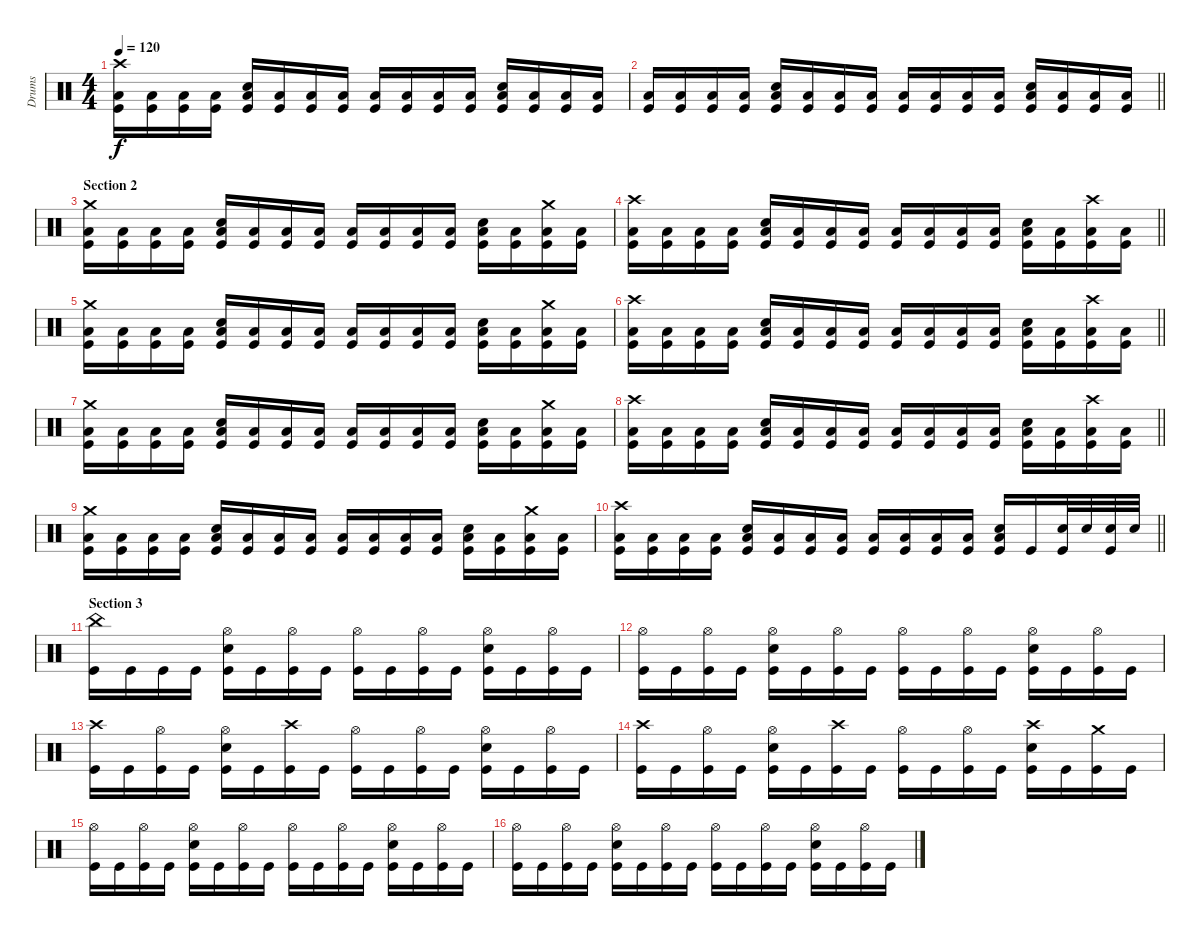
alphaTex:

\track ("Drums" "Drums") {instrument percussion}
\staff {score}
\articulation defaults
\ts (4 4)
\tempo 120
\clef neutral
\ks c
("Crash high (hit)" "Low Floor Tom (hit)" "Kick (hit)").16{dy f} ("Low Floor Tom (hit)" "Kick (hit)").16 ("Low Floor Tom (hit)" "Kick (hit)").16 ("Low Floor Tom (hit)" "Kick (hit)").16 ("Snare (hit) 2" "Low Floor Tom (hit)" "Kick (hit)").16 ("Low Floor Tom (hit)" "Kick (hit)").16 ("Low Floor Tom (hit)" "Kick (hit)").16 ("Low Floor Tom (hit)" "Kick (hit)").16 ("Low Floor Tom (hit)" "Kick (hit)").16 ("Low Floor Tom (hit)" "Kick (hit)").16 ("Low Floor Tom (hit)" "Kick (hit)").16 ("Low Floor Tom (hit)" "Kick (hit)").16 ("Snare (hit) 2" "Low Floor Tom (hit)" "Kick (hit)").16 ("Low Floor Tom (hit)" "Kick (hit)").16 ("Low Floor Tom (hit)" "Kick (hit)").16 ("Low Floor Tom (hit)" "Kick (hit)").16 |
\barLineRight lightlight
("Low Floor Tom (hit)" "Kick (hit)").16 ("Low Floor Tom (hit)" "Kick (hit)").16 ("Low Floor Tom (hit)" "Kick (hit)").16 ("Low Floor Tom (hit)" "Kick (hit)").16 ("Snare (hit) 2" "Low Floor Tom (hit)" "Kick (hit)").16 ("Low Floor Tom (hit)" "Kick (hit)").16 ("Low Floor Tom (hit)" "Kick (hit)").16 ("Low Floor Tom (hit)" "Kick (hit)").16 ("Low Floor Tom (hit)" "Kick (hit)").16 ("Low Floor Tom (hit)" "Kick (hit)").16 ("Low Floor Tom (hit)" "Kick (hit)").16 ("Low Floor Tom (hit)" "Kick (hit)").16 ("Snare (hit) 2" "Low Floor Tom (hit)" "Kick (hit)").16 ("Low Floor Tom (hit)" "Kick (hit)").16 ("Low Floor Tom (hit)" "Kick (hit)").16 ("Low Floor Tom (hit)" "Kick (hit)").16 |
\section ("" "Section 2")
("Crash medium (hit)" "Low Floor Tom (hit)" "Kick (hit)").16 ("Low Floor Tom (hit)" "Kick (hit)").16 ("Low Floor Tom (hit)" "Kick (hit)").16 ("Low Floor Tom (hit)" "Kick (hit)").16 ("Snare (hit) 2" "Low Floor Tom (hit)" "Kick (hit)").16 ("Low Floor Tom (hit)" "Kick (hit)").16 ("Low Floor Tom (hit)" "Kick (hit)").16 ("Low Floor Tom (hit)" "Kick (hit)").16 ("Low Floor Tom (hit)" "Kick (hit)").16 ("Low Floor Tom (hit)" "Kick (hit)").16 ("Low Floor Tom (hit)" "Kick (hit)").16 ("Low Floor Tom (hit)" "Kick (hit)").16 ("Snare (hit) 2" "Low Floor Tom (hit)" "Kick (hit)").16 ("Low Floor Tom (hit)" "Kick (hit)").16 ("Crash medium (hit)" "Low Floor Tom (hit)" "Kick (hit)").16 ("Low Floor Tom (hit)" "Kick (hit)").16 |
\barLineRight lightlight
("Crash high (hit)" "Low Floor Tom (hit)" "Kick (hit)").16 ("Low Floor Tom (hit)" "Kick (hit)").16 ("Low Floor Tom (hit)" "Kick (hit)").16 ("Low Floor Tom (hit)" "Kick (hit)").16 ("Snare (hit) 2" "Low Floor Tom (hit)" "Kick (hit)").16 ("Low Floor Tom (hit)" "Kick (hit)").16 ("Low Floor Tom (hit)" "Kick (hit)").16 ("Low Floor Tom (hit)" "Kick (hit)").16 ("Low Floor Tom (hit)" "Kick (hit)").16 ("Low Floor Tom (hit)" "Kick (hit)").16 ("Low Floor Tom (hit)" "Kick (hit)").16 ("Low Floor Tom (hit)" "Kick (hit)").16 ("Snare (hit) 2" "Low Floor Tom (hit)" "Kick (hit)").16 ("Low Floor Tom (hit)" "Kick (hit)").16 ("Crash high (hit)" "Low Floor Tom (hit)" "Kick (hit)").16 ("Low Floor Tom (hit)" "Kick (hit)").16 |
("Crash medium (hit)" "Low Floor Tom (hit)" "Kick (hit)").16 ("Low Floor Tom (hit)" "Kick (hit)").16 ("Low Floor Tom (hit)" "Kick (hit)").16 ("Low Floor Tom (hit)" "Kick (hit)").16 ("Snare (hit) 2" "Low Floor Tom (hit)" "Kick (hit)").16 ("Low Floor Tom (hit)" "Kick (hit)").16 ("Low Floor Tom (hit)" "Kick (hit)").16 ("Low Floor Tom (hit)" "Kick (hit)").16 ("Low Floor Tom (hit)" "Kick (hit)").16 ("Low Floor Tom (hit)" "Kick (hit)").16 ("Low Floor Tom (hit)" "Kick (hit)").16 ("Low Floor Tom (hit)" "Kick (hit)").16 ("Snare (hit) 2" "Low Floor Tom (hit)" "Kick (hit)").16 ("Low Floor Tom (hit)" "Kick (hit)").16 ("Crash medium (hit)" "Low Floor Tom (hit)" "Kick (hit)").16 ("Low Floor Tom (hit)" "Kick (hit)").16 |
\barLineRight lightlight
("Crash high (hit)" "Low Floor Tom (hit)" "Kick (hit)").16 ("Low Floor Tom (hit)" "Kick (hit)").16 ("Low Floor Tom (hit)" "Kick (hit)").16 ("Low Floor Tom (hit)" "Kick (hit)").16 ("Snare (hit) 2" "Low Floor Tom (hit)" "Kick (hit)").16 ("Low Floor Tom (hit)" "Kick (hit)").16 ("Low Floor Tom (hit)" "Kick (hit)").16 ("Low Floor Tom (hit)" "Kick (hit)").16 ("Low Floor Tom (hit)" "Kick (hit)").16 ("Low Floor Tom (hit)" "Kick (hit)").16 ("Low Floor Tom (hit)" "Kick (hit)").16 ("Low Floor Tom (hit)" "Kick (hit)").16 ("Snare (hit) 2" "Low Floor Tom (hit)" "Kick (hit)").16 ("Low Floor Tom (hit)" "Kick (hit)").16 ("Crash high (hit)" "Low Floor Tom (hit)" "Kick (hit)").16 ("Low Floor Tom (hit)" "Kick (hit)").16 |
("Crash medium (hit)" "Low Floor Tom (hit)" "Kick (hit)").16 ("Low Floor Tom (hit)" "Kick (hit)").16 ("Low Floor Tom (hit)" "Kick (hit)").16 ("Low Floor Tom (hit)" "Kick (hit)").16 ("Snare (hit) 2" "Low Floor Tom (hit)" "Kick (hit)").16 ("Low Floor Tom (hit)" "Kick (hit)").16 ("Low Floor Tom (hit)" "Kick (hit)").16 ("Low Floor Tom (hit)" "Kick (hit)").16 ("Low Floor Tom (hit)" "Kick (hit)").16 ("Low Floor Tom (hit)" "Kick (hit)").16 ("Low Floor Tom (hit)" "Kick (hit)").16 ("Low Floor Tom (hit)" "Kick (hit)").16 ("Snare (hit) 2" "Low Floor Tom (hit)" "Kick (hit)").16 ("Low Floor Tom (hit)" "Kick (hit)").16 ("Crash medium (hit)" "Low Floor Tom (hit)" "Kick (hit)").16 ("Low Floor Tom (hit)" "Kick (hit)").16 |
\barLineRight lightlight
("Crash high (hit)" "Low Floor Tom (hit)" "Kick (hit)").16 ("Low Floor Tom (hit)" "Kick (hit)").16 ("Low Floor Tom (hit)" "Kick (hit)").16 ("Low Floor Tom (hit)" "Kick (hit)").16 ("Snare (hit) 2" "Low Floor Tom (hit)" "Kick (hit)").16 ("Low Floor Tom (hit)" "Kick (hit)").16 ("Low Floor Tom (hit)" "Kick (hit)").16 ("Low Floor Tom (hit)" "Kick (hit)").16 ("Low Floor Tom (hit)" "Kick (hit)").16 ("Low Floor Tom (hit)" "Kick (hit)").16 ("Low Floor Tom (hit)" "Kick (hit)").16 ("Low Floor Tom (hit)" "Kick (hit)").16 ("Snare (hit) 2" "Low Floor Tom (hit)" "Kick (hit)").16 ("Low Floor Tom (hit)" "Kick (hit)").16 ("Crash high (hit)" "Low Floor Tom (hit)" "Kick (hit)").16 ("Low Floor Tom (hit)" "Kick (hit)").16 |
("Crash medium (hit)" "Low Floor Tom (hit)" "Kick (hit)").16 ("Low Floor Tom (hit)" "Kick (hit)").16 ("Low Floor Tom (hit)" "Kick (hit)").16 ("Low Floor Tom (hit)" "Kick (hit)").16 ("Snare (hit) 2" "Low Floor Tom (hit)" "Kick (hit)").16 ("Low Floor Tom (hit)" "Kick (hit)").16 ("Low Floor Tom (hit)" "Kick (hit)").16 ("Low Floor Tom (hit)" "Kick (hit)").16 ("Low Floor Tom (hit)" "Kick (hit)").16 ("Low Floor Tom (hit)" "Kick (hit)").16 ("Low Floor Tom (hit)" "Kick (hit)").16 ("Low Floor Tom (hit)" "Kick (hit)").16 ("Snare (hit) 2" "Low Floor Tom (hit)" "Kick (hit)").16 ("Low Floor Tom (hit)" "Kick (hit)").16 ("Crash medium (hit)" "Low Floor Tom (hit)" "Kick (hit)").16 ("Low Floor Tom (hit)" "Kick (hit)").16 |
\barLineRight lightlight
("Crash high (hit)" "Low Floor Tom (hit)" "Kick (hit)").16 ("Low Floor Tom (hit)" "Kick (hit)").16 ("Low Floor Tom (hit)" "Kick (hit)").16 ("Low Floor Tom (hit)" "Kick (hit)").16 ("Snare (hit) 2" "Low Floor Tom (hit)" "Kick (hit)").16 ("Low Floor Tom (hit)" "Kick (hit)").16 ("Low Floor Tom (hit)" "Kick (hit)").16 ("Low Floor Tom (hit)" "Kick (hit)").16 ("Low Floor Tom (hit)" "Kick (hit)").16 ("Low Floor Tom (hit)" "Kick (hit)").16 ("Low Floor Tom (hit)" "Kick (hit)").16 ("Low Floor Tom (hit)" "Kick (hit)").16 ("Snare (hit) 2" "Low Floor Tom (hit)" "Kick (hit)").16 "Kick (hit)".16 ("Snare (hit) 2" "Kick (hit)").32 "Snare (hit) 2".32 ("Snare (hit) 2" "Kick (hit)").32 "Snare (hit) 2".32 |
\section ("" "Section 3")
("China (hit)" "Kick (hit)").16 "Kick (hit)".16 "Kick (hit)".16 "Kick (hit)".16 ("Hi-Hat (open)" "Snare (hit) 2" "Kick (hit)").16 "Kick (hit)".16 ("Hi-Hat (open)" "Kick (hit)").16 "Kick (hit)".16 ("Hi-Hat (open)" "Kick (hit)").16 "Kick (hit)".16 ("Hi-Hat (open)" "Kick (hit)").16 "Kick (hit)".16 ("Hi-Hat (open)" "Snare (hit) 2" "Kick (hit)").16 "Kick (hit)".16 ("Hi-Hat (open)" "Kick (hit)").16 "Kick (hit)".16 |
("Hi-Hat (open)" "Kick (hit)").16 "Kick (hit)".16 ("Hi-Hat (open)" "Kick (hit)").16 "Kick (hit)".16 ("Hi-Hat (open)" "Snare (hit) 2" "Kick (hit)").16 "Kick (hit)".16 ("Hi-Hat (open)" "Kick (hit)").16 "Kick (hit)".16 ("Hi-Hat (open)" "Kick (hit)").16 "Kick (hit)".16 ("Hi-Hat (open)" "Kick (hit)").16 "Kick (hit)".16 ("Hi-Hat (open)" "Snare (hit) 2" "Kick (hit)").16 "Kick (hit)".16 ("Hi-Hat (open)" "Kick (hit)").16 "Kick (hit)".16 |
("Crash high (hit)" "Kick (hit)").16 "Kick (hit)".16 ("Hi-Hat (open)" "Kick (hit)").16 "Kick (hit)".16 ("Hi-Hat (open)" "Snare (hit) 2" "Kick (hit)").16 "Kick (hit)".16 ("Crash high (hit)" "Kick (hit)").16 "Kick (hit)".16 ("Hi-Hat (open)" "Kick (hit)").16 "Kick (hit)".16 ("Hi-Hat (open)" "Kick (hit)").16 "Kick (hit)".16 ("Hi-Hat (open)" "Snare (hit) 2" "Kick (hit)").16 "Kick (hit)".16 ("Hi-Hat (open)" "Kick (hit)").16 "Kick (hit)".16 |
("Crash high (hit)" "Kick (hit)").16 "Kick (hit)".16 ("Hi-Hat (open)" "Kick (hit)").16 "Kick (hit)".16 ("Hi-Hat (open)" "Snare (hit) 2" "Kick (hit)").16 "Kick (hit)".16 ("Crash high (hit)" "Kick (hit)").16 "Kick (hit)".16 ("Hi-Hat (open)" "Kick (hit)").16 "Kick (hit)".16 ("Hi-Hat (open)" "Kick (hit)").16 "Kick (hit)".16 ("Crash high (hit)" "Snare (hit) 2" "Kick (hit)").16 "Kick (hit)".16 ("Crash medium (hit)" "Kick (hit)").16 "Kick (hit)".16 |
("Hi-Hat (open)" "Kick (hit)").16 "Kick (hit)".16 ("Hi-Hat (open)" "Kick (hit)").16 "Kick (hit)".16 ("Hi-Hat (open)" "Snare (hit) 2" "Kick (hit)").16 "Kick (hit)".16 ("Hi-Hat (open)" "Kick (hit)").16 "Kick (hit)".16 ("Hi-Hat (open)" "Kick (hit)").16 "Kick (hit)".16 ("Hi-Hat (open)" "Kick (hit)").16 "Kick (hit)".16 ("Hi-Hat (open)" "Snare (hit) 2" "Kick (hit)").16 "Kick (hit)".16 ("Hi-Hat (open)" "Kick (hit)").16 "Kick (hit)".16 |
("Hi-Hat (open)" "Kick (hit)").16 "Kick (hit)".16 ("Hi-Hat (open)" "Kick (hit)").16 "Kick (hit)".16 ("Hi-Hat (open)" "Snare (hit) 2" "Kick (hit)").16 "Kick (hit)".16 ("Hi-Hat (open)" "Kick (hit)").16 "Kick (hit)".16 ("Hi-Hat (open)" "Kick (hit)").16 "Kick (hit)".16 ("Hi-Hat (open)" "Kick (hit)").16 "Kick (hit)".16 ("Hi-Hat (open)" "Snare (hit) 2" "Kick (hit)").16 "Kick (hit)".16 ("Hi-Hat (open)" "Kick (hit)").16 "Kick (hit)".16
